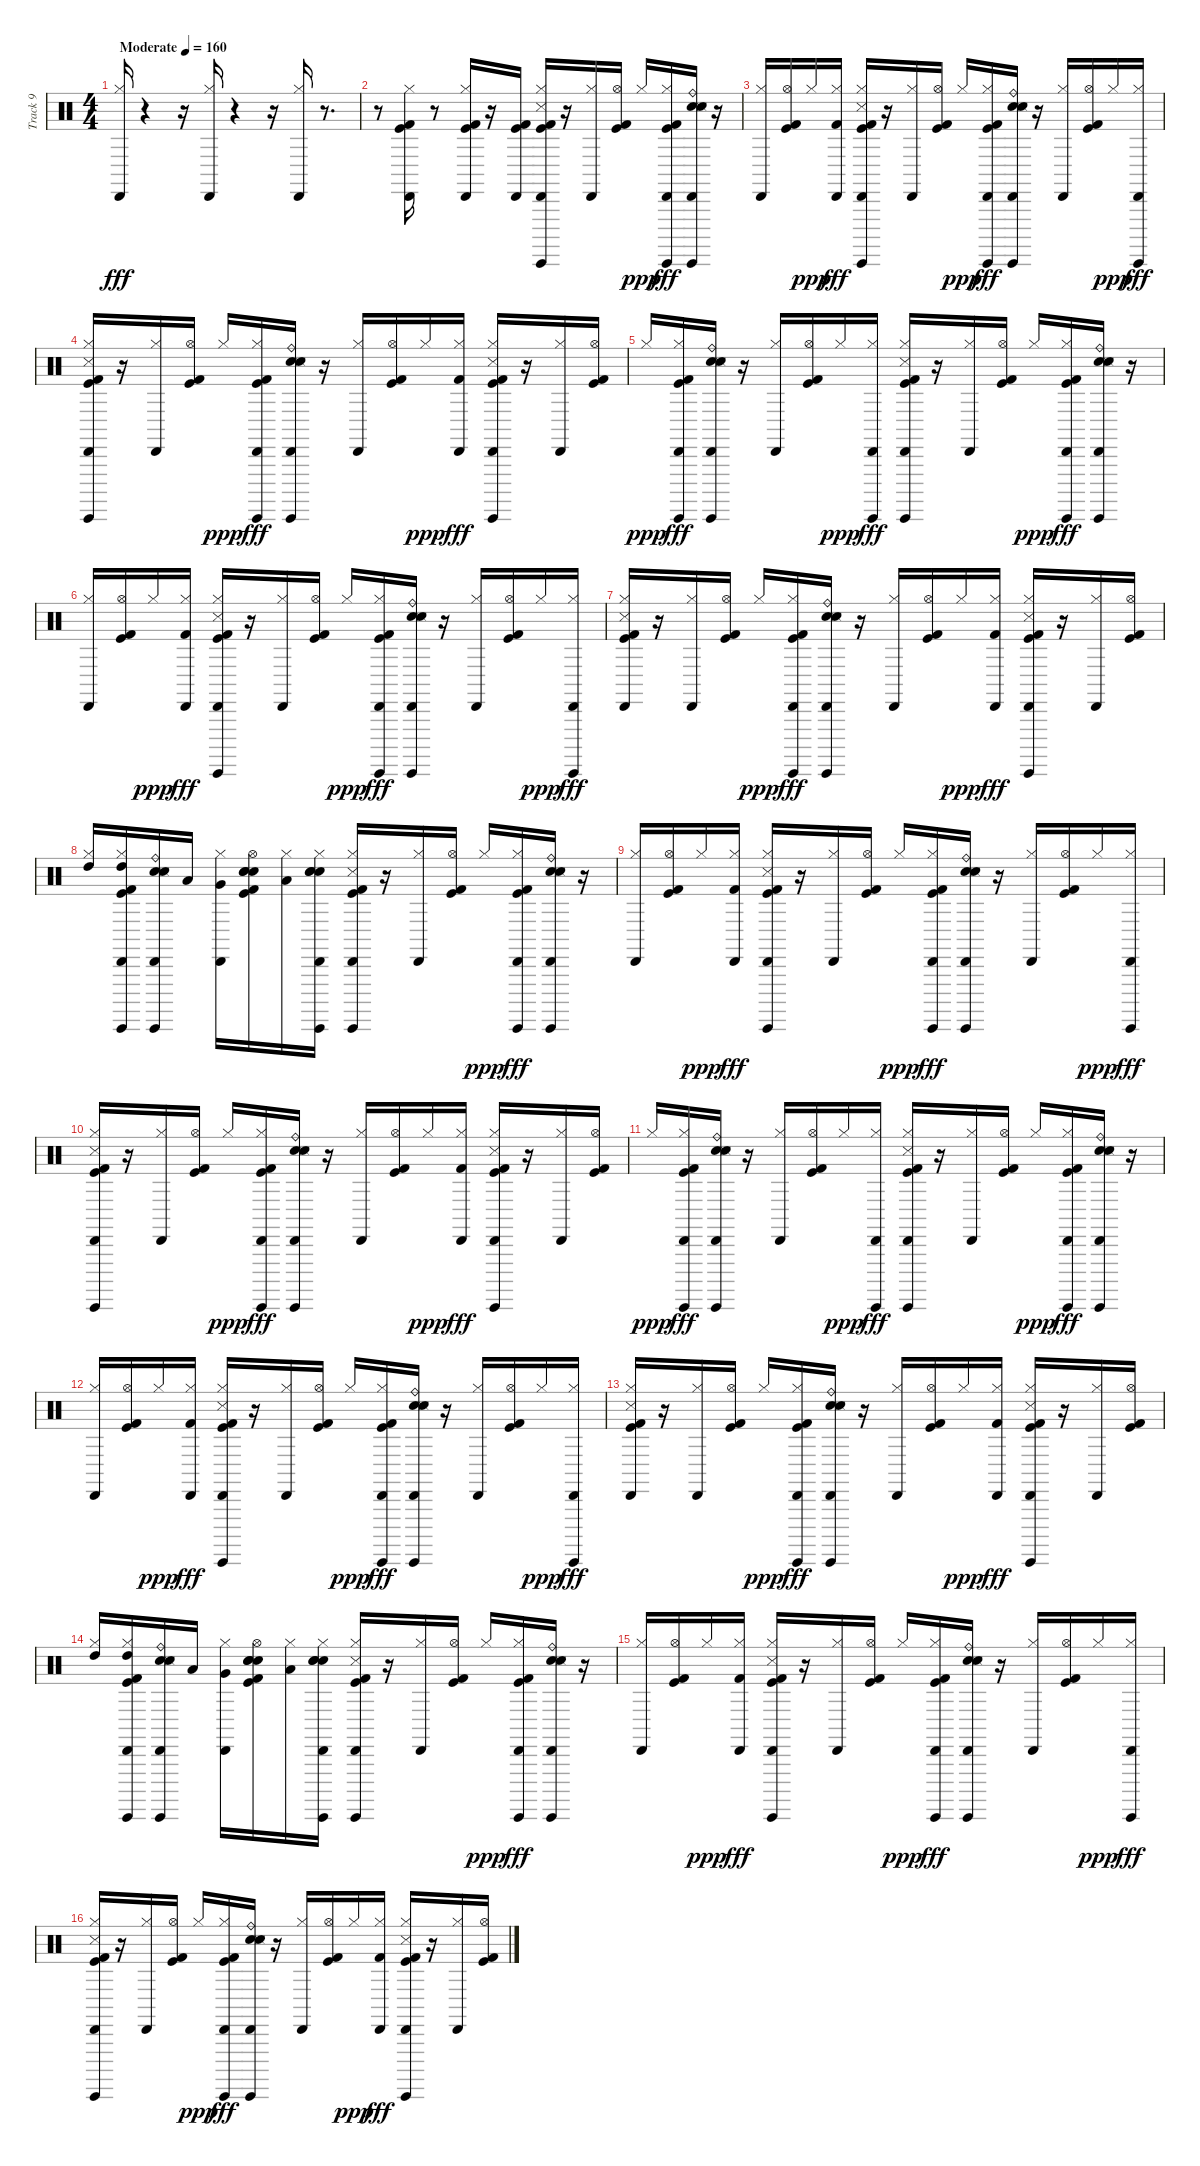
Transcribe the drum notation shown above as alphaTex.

\track ("Track 9" "Track 9") {instrument percussion}
\staff {score}
\articulation defaults
\ts (4 4)
\tempo (160 "Moderate")
\clef neutral
\ks c
("Hi-Hat (closed)" "Cabasa (hit)").16{dy fff} r.4 r.16 ("Hi-Hat (closed)" "Cabasa (hit)").16 r.4 r.16 ("Hi-Hat (closed)" "Cabasa (hit)").16 r.8{d} |
r.8 ("Kick (hit)" "Kick (hit) 2" "Hi-Hat (closed)" "Cabasa (hit)").16 r.8 ("Kick (hit)" "Kick (hit) 2" "Hi-Hat (closed)" "Cabasa (hit)").16 r.16 ("Kick (hit)" "Kick (hit) 2" "Cabasa (hit)").16 ("Hi-Hat (closed)" "Cabasa (hit)" "Snare (side stick) 3" "Kick (hit) 2" "Kick (hit)" "Guiro (hit)").16 r.16 ("Hi-Hat (closed)" "Cabasa (hit)").16 ("Hi-Hat (open)" "Kick (hit) 2" "Kick (hit)").16 "Hi-Hat (closed)".16{dy ppp} ("Hi-Hat (closed)" "Cabasa (hit)" "Kick (hit) 2" "Kick (hit)" "Guiro (hit)").16{dy fff} ("Electric Snare (hit)" "Snare (hit) 2" "Cabasa (hit)" "Snare (side stick) 3" "Ride (bell)" "Guiro (hit)").16 r.16 |
("Hi-Hat (closed)" "Cabasa (hit)").16 ("Hi-Hat (open)" "Kick (hit) 2" "Kick (hit)").16 "Hi-Hat (closed)".16{dy ppp} ("Hi-Hat (closed)" "Cabasa (hit)" "Kick (hit) 2").16{dy fff} ("Kick (hit)" "Kick (hit) 2" "Hi-Hat (closed)" "Cabasa (hit)" "Snare (side stick) 3" "Guiro (hit)").16 r.16 ("Hi-Hat (closed)" "Cabasa (hit)").16 ("Hi-Hat (open)" "Kick (hit) 2" "Kick (hit)").16 "Hi-Hat (closed)".16{dy ppp} ("Hi-Hat (closed)" "Cabasa (hit)" "Kick (hit) 2" "Kick (hit)" "Guiro (hit)").16{dy fff} ("Electric Snare (hit)" "Snare (hit) 2" "Cabasa (hit)" "Snare (side stick) 3" "Ride (bell)" "Guiro (hit)").16 r.16 ("Hi-Hat (closed)" "Cabasa (hit)").16 ("Hi-Hat (open)" "Kick (hit) 2" "Kick (hit)").16 "Hi-Hat (closed)".16{dy ppp} ("Hi-Hat (closed)" "Cabasa (hit)" "Guiro (hit)").16{dy fff} |
("Hi-Hat (closed)" "Cabasa (hit)" "Snare (side stick) 3" "Kick (hit) 2" "Kick (hit)" "Guiro (hit)").16 r.16 ("Hi-Hat (closed)" "Cabasa (hit)").16 ("Hi-Hat (open)" "Kick (hit) 2" "Kick (hit)").16 "Hi-Hat (closed)".16{dy ppp} ("Hi-Hat (closed)" "Cabasa (hit)" "Kick (hit) 2" "Kick (hit)" "Guiro (hit)").16{dy fff} ("Electric Snare (hit)" "Snare (hit) 2" "Cabasa (hit)" "Snare (side stick) 3" "Ride (bell)" "Guiro (hit)").16 r.16 ("Hi-Hat (closed)" "Cabasa (hit)").16 ("Hi-Hat (open)" "Kick (hit) 2" "Kick (hit)").16 "Hi-Hat (closed)".16{dy ppp} ("Hi-Hat (closed)" "Cabasa (hit)" "Kick (hit) 2").16{dy fff} ("Kick (hit)" "Kick (hit) 2" "Hi-Hat (closed)" "Cabasa (hit)" "Snare (side stick) 3" "Guiro (hit)").16 r.16 ("Hi-Hat (closed)" "Cabasa (hit)").16 ("Hi-Hat (open)" "Kick (hit) 2" "Kick (hit)").16 |
"Hi-Hat (closed)".16{dy ppp} ("Hi-Hat (closed)" "Cabasa (hit)" "Kick (hit) 2" "Kick (hit)" "Guiro (hit)").16{dy fff} ("Electric Snare (hit)" "Snare (hit) 2" "Cabasa (hit)" "Snare (side stick) 3" "Ride (bell)" "Guiro (hit)").16 r.16 ("Hi-Hat (closed)" "Cabasa (hit)").16 ("Hi-Hat (open)" "Kick (hit) 2" "Kick (hit)").16 "Hi-Hat (closed)".16{dy ppp} ("Hi-Hat (closed)" "Cabasa (hit)" "Guiro (hit)").16{dy fff} ("Hi-Hat (closed)" "Cabasa (hit)" "Snare (side stick) 3" "Kick (hit) 2" "Kick (hit)" "Guiro (hit)").16 r.16 ("Hi-Hat (closed)" "Cabasa (hit)").16 ("Hi-Hat (open)" "Kick (hit) 2" "Kick (hit)").16 "Hi-Hat (closed)".16{dy ppp} ("Hi-Hat (closed)" "Cabasa (hit)" "Kick (hit) 2" "Kick (hit)" "Guiro (hit)").16{dy fff} ("Electric Snare (hit)" "Snare (hit) 2" "Cabasa (hit)" "Snare (side stick) 3" "Ride (bell)" "Guiro (hit)").16 r.16 |
("Hi-Hat (closed)" "Cabasa (hit)").16 ("Hi-Hat (open)" "Kick (hit) 2" "Kick (hit)").16 "Hi-Hat (closed)".16{dy ppp} ("Hi-Hat (closed)" "Cabasa (hit)" "Kick (hit) 2").16{dy fff} ("Kick (hit)" "Kick (hit) 2" "Hi-Hat (closed)" "Cabasa (hit)" "Snare (side stick) 3" "Guiro (hit)").16 r.16 ("Hi-Hat (closed)" "Cabasa (hit)").16 ("Hi-Hat (open)" "Kick (hit) 2" "Kick (hit)").16 "Hi-Hat (closed)".16{dy ppp} ("Hi-Hat (closed)" "Cabasa (hit)" "Kick (hit) 2" "Kick (hit)" "Guiro (hit)").16{dy fff} ("Electric Snare (hit)" "Snare (hit) 2" "Cabasa (hit)" "Snare (side stick) 3" "Ride (bell)" "Guiro (hit)").16 r.16 ("Hi-Hat (closed)" "Cabasa (hit)").16 ("Hi-Hat (open)" "Kick (hit) 2" "Kick (hit)").16 "Hi-Hat (closed)".16{dy ppp} ("Hi-Hat (closed)" "Cabasa (hit)" "Guiro (hit)").16{dy fff} |
("Hi-Hat (closed)" "Cabasa (hit)" "Snare (side stick) 3" "Kick (hit) 2" "Kick (hit)").16 r.16 ("Hi-Hat (closed)" "Cabasa (hit)").16 ("Hi-Hat (open)" "Kick (hit) 2" "Kick (hit)").16 "Hi-Hat (closed)".16{dy ppp} ("Hi-Hat (closed)" "Cabasa (hit)" "Kick (hit) 2" "Kick (hit)" "Guiro (hit)").16{dy fff} ("Electric Snare (hit)" "Snare (hit) 2" "Cabasa (hit)" "Snare (side stick) 3" "Ride (bell)" "Guiro (hit)").16 r.16 ("Hi-Hat (closed)" "Cabasa (hit)").16 ("Hi-Hat (open)" "Kick (hit) 2" "Kick (hit)").16 "Hi-Hat (closed)".16{dy ppp} ("Hi-Hat (closed)" "Cabasa (hit)" "Kick (hit) 2").16{dy fff} ("Kick (hit)" "Kick (hit) 2" "Hi-Hat (closed)" "Cabasa (hit)" "Snare (side stick) 3" "Guiro (hit)").16 r.16 ("Hi-Hat (closed)" "Cabasa (hit)").16 ("Hi-Hat (open)" "Kick (hit) 2" "Kick (hit)").16 |
("Hi-Hat (closed)" "High Tom (hit)").16 ("Hi-Hat (closed)" "Cabasa (hit)" "Kick (hit) 2" "Kick (hit)" "Guiro (hit)" "High Tom (hit)").16 ("Electric Snare (hit)" "Snare (hit) 2" "Cabasa (hit)" "Snare (side stick) 3" "Ride (bell)" "Guiro (hit)").16 "Low Tom (hit)".16 ("Hi-Hat (closed)" "Cabasa (hit)" "Very Low Tom (hit)").16 ("Hi-Hat (open)" "Kick (hit) 2" "Kick (hit)" "Electric Snare (hit)" "Snare (hit) 2" "Hand Clap (hit)").16 ("Hi-Hat (closed)" "Low Floor Tom (hit)").16 ("Hi-Hat (closed)" "Cabasa (hit)" "Guiro (hit)" "Electric Snare (hit)" "Snare (hit) 2" "Hand Clap (hit)").16 ("Hi-Hat (closed)" "Cabasa (hit)" "Snare (side stick) 3" "Kick (hit) 2" "Kick (hit)" "Guiro (hit)").16 r.16 ("Hi-Hat (closed)" "Cabasa (hit)").16 ("Hi-Hat (open)" "Kick (hit) 2" "Kick (hit)").16 "Hi-Hat (closed)".16{dy ppp} ("Hi-Hat (closed)" "Cabasa (hit)" "Kick (hit) 2" "Kick (hit)" "Guiro (hit)").16{dy fff} ("Electric Snare (hit)" "Snare (hit) 2" "Cabasa (hit)" "Snare (side stick) 3" "Ride (bell)" "Guiro (hit)").16 r.16 |
("Hi-Hat (closed)" "Cabasa (hit)").16 ("Hi-Hat (open)" "Kick (hit) 2" "Kick (hit)").16 "Hi-Hat (closed)".16{dy ppp} ("Hi-Hat (closed)" "Cabasa (hit)" "Kick (hit) 2").16{dy fff} ("Kick (hit)" "Kick (hit) 2" "Hi-Hat (closed)" "Cabasa (hit)" "Snare (side stick) 3" "Guiro (hit)").16 r.16 ("Hi-Hat (closed)" "Cabasa (hit)").16 ("Hi-Hat (open)" "Kick (hit) 2" "Kick (hit)").16 "Hi-Hat (closed)".16{dy ppp} ("Hi-Hat (closed)" "Cabasa (hit)" "Kick (hit) 2" "Kick (hit)" "Guiro (hit)").16{dy fff} ("Electric Snare (hit)" "Snare (hit) 2" "Cabasa (hit)" "Snare (side stick) 3" "Ride (bell)" "Guiro (hit)").16 r.16 ("Hi-Hat (closed)" "Cabasa (hit)").16 ("Hi-Hat (open)" "Kick (hit) 2" "Kick (hit)").16 "Hi-Hat (closed)".16{dy ppp} ("Hi-Hat (closed)" "Cabasa (hit)" "Guiro (hit)").16{dy fff} |
("Hi-Hat (closed)" "Cabasa (hit)" "Snare (side stick) 3" "Kick (hit) 2" "Kick (hit)" "Guiro (hit)").16 r.16 ("Hi-Hat (closed)" "Cabasa (hit)").16 ("Hi-Hat (open)" "Kick (hit) 2" "Kick (hit)").16 "Hi-Hat (closed)".16{dy ppp} ("Hi-Hat (closed)" "Cabasa (hit)" "Kick (hit) 2" "Kick (hit)" "Guiro (hit)").16{dy fff} ("Electric Snare (hit)" "Snare (hit) 2" "Cabasa (hit)" "Snare (side stick) 3" "Ride (bell)" "Guiro (hit)").16 r.16 ("Hi-Hat (closed)" "Cabasa (hit)").16 ("Hi-Hat (open)" "Kick (hit) 2" "Kick (hit)").16 "Hi-Hat (closed)".16{dy ppp} ("Hi-Hat (closed)" "Cabasa (hit)" "Kick (hit) 2").16{dy fff} ("Kick (hit)" "Kick (hit) 2" "Hi-Hat (closed)" "Cabasa (hit)" "Snare (side stick) 3" "Guiro (hit)").16 r.16 ("Hi-Hat (closed)" "Cabasa (hit)").16 ("Hi-Hat (open)" "Kick (hit) 2" "Kick (hit)").16 |
"Hi-Hat (closed)".16{dy ppp} ("Hi-Hat (closed)" "Cabasa (hit)" "Kick (hit) 2" "Kick (hit)" "Guiro (hit)").16{dy fff} ("Electric Snare (hit)" "Snare (hit) 2" "Cabasa (hit)" "Snare (side stick) 3" "Ride (bell)" "Guiro (hit)").16 r.16 ("Hi-Hat (closed)" "Cabasa (hit)").16 ("Hi-Hat (open)" "Kick (hit) 2" "Kick (hit)").16 "Hi-Hat (closed)".16{dy ppp} ("Hi-Hat (closed)" "Cabasa (hit)" "Guiro (hit)").16{dy fff} ("Hi-Hat (closed)" "Cabasa (hit)" "Snare (side stick) 3" "Kick (hit) 2" "Kick (hit)" "Guiro (hit)").16 r.16 ("Hi-Hat (closed)" "Cabasa (hit)").16 ("Hi-Hat (open)" "Kick (hit) 2" "Kick (hit)").16 "Hi-Hat (closed)".16{dy ppp} ("Hi-Hat (closed)" "Cabasa (hit)" "Kick (hit) 2" "Kick (hit)" "Guiro (hit)").16{dy fff} ("Electric Snare (hit)" "Snare (hit) 2" "Cabasa (hit)" "Snare (side stick) 3" "Ride (bell)" "Guiro (hit)").16 r.16 |
("Hi-Hat (closed)" "Cabasa (hit)").16 ("Hi-Hat (open)" "Kick (hit) 2" "Kick (hit)").16 "Hi-Hat (closed)".16{dy ppp} ("Hi-Hat (closed)" "Cabasa (hit)" "Kick (hit) 2").16{dy fff} ("Kick (hit)" "Kick (hit) 2" "Hi-Hat (closed)" "Cabasa (hit)" "Snare (side stick) 3" "Guiro (hit)").16 r.16 ("Hi-Hat (closed)" "Cabasa (hit)").16 ("Hi-Hat (open)" "Kick (hit) 2" "Kick (hit)").16 "Hi-Hat (closed)".16{dy ppp} ("Hi-Hat (closed)" "Cabasa (hit)" "Kick (hit) 2" "Kick (hit)" "Guiro (hit)").16{dy fff} ("Electric Snare (hit)" "Snare (hit) 2" "Cabasa (hit)" "Snare (side stick) 3" "Ride (bell)" "Guiro (hit)").16 r.16 ("Hi-Hat (closed)" "Cabasa (hit)").16 ("Hi-Hat (open)" "Kick (hit) 2" "Kick (hit)").16 "Hi-Hat (closed)".16{dy ppp} ("Hi-Hat (closed)" "Cabasa (hit)" "Guiro (hit)").16{dy fff} |
("Hi-Hat (closed)" "Cabasa (hit)" "Snare (side stick) 3" "Kick (hit) 2" "Kick (hit)").16 r.16 ("Hi-Hat (closed)" "Cabasa (hit)").16 ("Hi-Hat (open)" "Kick (hit) 2" "Kick (hit)").16 "Hi-Hat (closed)".16{dy ppp} ("Hi-Hat (closed)" "Cabasa (hit)" "Kick (hit) 2" "Kick (hit)" "Guiro (hit)").16{dy fff} ("Electric Snare (hit)" "Snare (hit) 2" "Cabasa (hit)" "Snare (side stick) 3" "Ride (bell)" "Guiro (hit)").16 r.16 ("Hi-Hat (closed)" "Cabasa (hit)").16 ("Hi-Hat (open)" "Kick (hit) 2" "Kick (hit)").16 "Hi-Hat (closed)".16{dy ppp} ("Hi-Hat (closed)" "Cabasa (hit)" "Kick (hit) 2").16{dy fff} ("Kick (hit)" "Kick (hit) 2" "Hi-Hat (closed)" "Cabasa (hit)" "Snare (side stick) 3" "Guiro (hit)").16 r.16 ("Hi-Hat (closed)" "Cabasa (hit)").16 ("Hi-Hat (open)" "Kick (hit) 2" "Kick (hit)").16 |
("Hi-Hat (closed)" "High Tom (hit)").16 ("Hi-Hat (closed)" "Cabasa (hit)" "Kick (hit) 2" "Kick (hit)" "Guiro (hit)" "High Tom (hit)").16 ("Electric Snare (hit)" "Snare (hit) 2" "Cabasa (hit)" "Snare (side stick) 3" "Ride (bell)" "Guiro (hit)").16 "Low Tom (hit)".16 ("Hi-Hat (closed)" "Cabasa (hit)" "Very Low Tom (hit)").16 ("Hi-Hat (open)" "Kick (hit) 2" "Kick (hit)" "Electric Snare (hit)" "Snare (hit) 2" "Hand Clap (hit)").16 ("Hi-Hat (closed)" "Low Floor Tom (hit)").16 ("Hi-Hat (closed)" "Cabasa (hit)" "Guiro (hit)" "Electric Snare (hit)" "Snare (hit) 2" "Hand Clap (hit)").16 ("Hi-Hat (closed)" "Cabasa (hit)" "Snare (side stick) 3" "Kick (hit) 2" "Kick (hit)" "Guiro (hit)").16 r.16 ("Hi-Hat (closed)" "Cabasa (hit)").16 ("Hi-Hat (open)" "Kick (hit) 2" "Kick (hit)").16 "Hi-Hat (closed)".16{dy ppp} ("Hi-Hat (closed)" "Cabasa (hit)" "Kick (hit) 2" "Kick (hit)" "Guiro (hit)").16{dy fff} ("Electric Snare (hit)" "Snare (hit) 2" "Cabasa (hit)" "Snare (side stick) 3" "Ride (bell)" "Guiro (hit)").16 r.16 |
("Hi-Hat (closed)" "Cabasa (hit)").16 ("Hi-Hat (open)" "Kick (hit) 2" "Kick (hit)").16 "Hi-Hat (closed)".16{dy ppp} ("Hi-Hat (closed)" "Cabasa (hit)" "Kick (hit) 2").16{dy fff} ("Kick (hit)" "Kick (hit) 2" "Hi-Hat (closed)" "Cabasa (hit)" "Snare (side stick) 3" "Guiro (hit)").16 r.16 ("Hi-Hat (closed)" "Cabasa (hit)").16 ("Hi-Hat (open)" "Kick (hit) 2" "Kick (hit)").16 "Hi-Hat (closed)".16{dy ppp} ("Hi-Hat (closed)" "Cabasa (hit)" "Kick (hit) 2" "Kick (hit)" "Guiro (hit)").16{dy fff} ("Electric Snare (hit)" "Snare (hit) 2" "Cabasa (hit)" "Snare (side stick) 3" "Ride (bell)" "Guiro (hit)").16 r.16 ("Hi-Hat (closed)" "Cabasa (hit)").16 ("Hi-Hat (open)" "Kick (hit) 2" "Kick (hit)").16 "Hi-Hat (closed)".16{dy ppp} ("Hi-Hat (closed)" "Cabasa (hit)" "Guiro (hit)").16{dy fff} |
("Hi-Hat (closed)" "Cabasa (hit)" "Snare (side stick) 3" "Kick (hit) 2" "Kick (hit)" "Guiro (hit)").16 r.16 ("Hi-Hat (closed)" "Cabasa (hit)").16 ("Hi-Hat (open)" "Kick (hit) 2" "Kick (hit)").16 "Hi-Hat (closed)".16{dy ppp} ("Hi-Hat (closed)" "Cabasa (hit)" "Kick (hit) 2" "Kick (hit)" "Guiro (hit)").16{dy fff} ("Electric Snare (hit)" "Snare (hit) 2" "Cabasa (hit)" "Snare (side stick) 3" "Ride (bell)" "Guiro (hit)").16 r.16 ("Hi-Hat (closed)" "Cabasa (hit)").16 ("Hi-Hat (open)" "Kick (hit) 2" "Kick (hit)").16 "Hi-Hat (closed)".16{dy ppp} ("Hi-Hat (closed)" "Cabasa (hit)" "Kick (hit) 2").16{dy fff} ("Kick (hit)" "Kick (hit) 2" "Hi-Hat (closed)" "Cabasa (hit)" "Snare (side stick) 3" "Guiro (hit)").16 r.16 ("Hi-Hat (closed)" "Cabasa (hit)").16 ("Hi-Hat (open)" "Kick (hit) 2" "Kick (hit)").16
